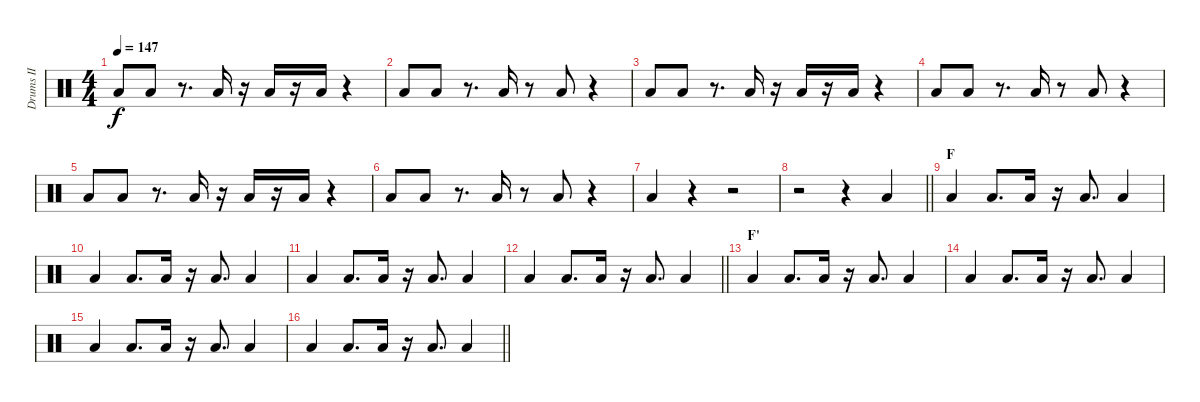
\track ("Drums II" "Drums II") {instrument percussion}
\staff {score}
\articulation defaults
\ts (4 4)
\tempo 147
\clef neutral
\ks c "Low Tom (hit)".8{dy f} "Low Tom (hit)".8
r.8{d} "Low Tom (hit)".16 r.16 "Low Tom (hit)".16 r.16 "Low Tom (hit)".16 r.4 |
"Low Tom (hit)".8 "Low Tom (hit)".8 r.8{d} "Low Tom (hit)".16 r.8 "Low Tom (hit)".8 r.4 |
"Low Tom (hit)".8 "Low Tom (hit)".8 r.8{d} "Low Tom (hit)".16 r.16 "Low Tom (hit)".16 r.16 "Low Tom (hit)".16 r.4 |
"Low Tom (hit)".8 "Low Tom (hit)".8 r.8{d} "Low Tom (hit)".16 r.8 "Low Tom (hit)".8 r.4 |
"Low Tom (hit)".8 "Low Tom (hit)".8 r.8{d} "Low Tom (hit)".16 r.16 "Low Tom (hit)".16 r.16 "Low Tom (hit)".16 r.4 |
"Low Tom (hit)".8 "Low Tom (hit)".8 r.8{d} "Low Tom (hit)".16 r.8 "Low Tom (hit)".8 r.4 |
"Low Tom (hit)".4 r.4 r.2 |
\barLineRight lightlight
r.2 r.4 "Low Tom (hit)".4 |
\section ("" "F")
"Low Tom (hit)".4 "Low Tom (hit)".8{d} "Low Tom (hit)".16 r.16 "Low Tom (hit)".8{d} "Low Tom (hit)".4 |
"Low Tom (hit)".4 "Low Tom (hit)".8{d} "Low Tom (hit)".16 r.16 "Low Tom (hit)".8{d} "Low Tom (hit)".4 |
"Low Tom (hit)".4 "Low Tom (hit)".8{d} "Low Tom (hit)".16 r.16 "Low Tom (hit)".8{d} "Low Tom (hit)".4 |
\barLineRight lightlight "Low Tom (hit)".4 "Low Tom (hit)".8{d} "Low Tom (hit)".16
r.16 "Low Tom (hit)".8{d} "Low Tom (hit)".4 |
\section ("" "F'")
"Low Tom (hit)".4 "Low Tom (hit)".8{d} "Low Tom (hit)".16 r.16 "Low Tom (hit)".8{d} "Low Tom (hit)".4 |
"Low Tom (hit)".4 "Low Tom (hit)".8{d} "Low Tom (hit)".16 r.16 "Low Tom (hit)".8{d} "Low Tom (hit)".4 |
"Low Tom (hit)".4 "Low Tom (hit)".8{d} "Low Tom (hit)".16 r.16 "Low Tom (hit)".8{d} "Low Tom (hit)".4 |
\barLineRight lightlight "Low Tom (hit)".4 "Low Tom (hit)".8{d} "Low Tom (hit)".16
r.16 "Low Tom (hit)".8{d} "Low Tom (hit)".4
